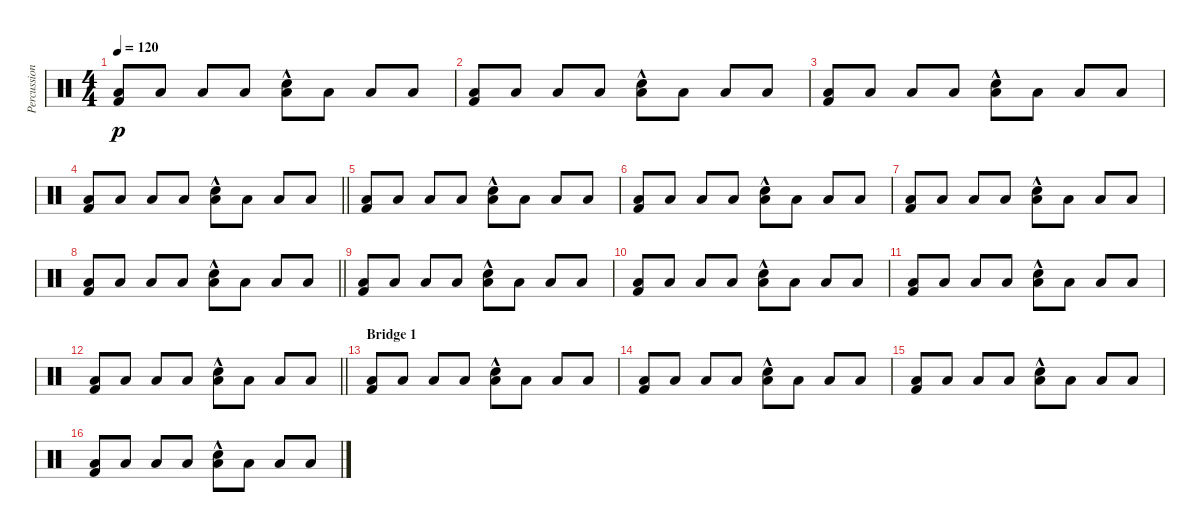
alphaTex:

\track ("Percussion" "Percussion") {instrument percussion}
\staff {score}
\articulation defaults
\ts (4 4)
\tempo 120
\clef neutral
\ks c
("Kick (hit) 2" "Low Floor Tom (hit)").8{dy p} "Low Floor Tom (hit)".8 "Low Floor Tom (hit)".8 "Low Floor Tom (hit)".8 ("Snare (hit) 2"{hac} "Low Floor Tom (hit)").8 "Low Floor Tom (hit)".8 "Low Floor Tom (hit)".8 "Low Floor Tom (hit)".8 |
("Kick (hit) 2" "Low Floor Tom (hit)").8 "Low Floor Tom (hit)".8 "Low Floor Tom (hit)".8 "Low Floor Tom (hit)".8 ("Snare (hit) 2"{hac} "Low Floor Tom (hit)").8 "Low Floor Tom (hit)".8 "Low Floor Tom (hit)".8 "Low Floor Tom (hit)".8 |
("Kick (hit) 2" "Low Floor Tom (hit)").8 "Low Floor Tom (hit)".8 "Low Floor Tom (hit)".8 "Low Floor Tom (hit)".8 ("Snare (hit) 2"{hac} "Low Floor Tom (hit)").8 "Low Floor Tom (hit)".8 "Low Floor Tom (hit)".8 "Low Floor Tom (hit)".8 |
\barLineRight lightlight
("Kick (hit) 2" "Low Floor Tom (hit)").8 "Low Floor Tom (hit)".8 "Low Floor Tom (hit)".8 "Low Floor Tom (hit)".8 ("Snare (hit) 2"{hac} "Low Floor Tom (hit)").8 "Low Floor Tom (hit)".8 "Low Floor Tom (hit)".8 "Low Floor Tom (hit)".8 |
("Kick (hit) 2" "Low Floor Tom (hit)").8 "Low Floor Tom (hit)".8 "Low Floor Tom (hit)".8 "Low Floor Tom (hit)".8 ("Snare (hit) 2"{hac} "Low Floor Tom (hit)").8 "Low Floor Tom (hit)".8 "Low Floor Tom (hit)".8 "Low Floor Tom (hit)".8 |
("Kick (hit) 2" "Low Floor Tom (hit)").8 "Low Floor Tom (hit)".8 "Low Floor Tom (hit)".8 "Low Floor Tom (hit)".8 ("Snare (hit) 2"{hac} "Low Floor Tom (hit)").8 "Low Floor Tom (hit)".8 "Low Floor Tom (hit)".8 "Low Floor Tom (hit)".8 |
("Kick (hit) 2" "Low Floor Tom (hit)").8 "Low Floor Tom (hit)".8 "Low Floor Tom (hit)".8 "Low Floor Tom (hit)".8 ("Snare (hit) 2"{hac} "Low Floor Tom (hit)").8 "Low Floor Tom (hit)".8 "Low Floor Tom (hit)".8 "Low Floor Tom (hit)".8 |
\barLineRight lightlight
("Kick (hit) 2" "Low Floor Tom (hit)").8 "Low Floor Tom (hit)".8 "Low Floor Tom (hit)".8 "Low Floor Tom (hit)".8 ("Snare (hit) 2"{hac} "Low Floor Tom (hit)").8 "Low Floor Tom (hit)".8 "Low Floor Tom (hit)".8 "Low Floor Tom (hit)".8 |
("Kick (hit) 2" "Low Floor Tom (hit)").8 "Low Floor Tom (hit)".8 "Low Floor Tom (hit)".8 "Low Floor Tom (hit)".8 ("Snare (hit) 2"{hac} "Low Floor Tom (hit)").8 "Low Floor Tom (hit)".8 "Low Floor Tom (hit)".8 "Low Floor Tom (hit)".8 |
("Kick (hit) 2" "Low Floor Tom (hit)").8 "Low Floor Tom (hit)".8 "Low Floor Tom (hit)".8 "Low Floor Tom (hit)".8 ("Snare (hit) 2"{hac} "Low Floor Tom (hit)").8 "Low Floor Tom (hit)".8 "Low Floor Tom (hit)".8 "Low Floor Tom (hit)".8 |
("Kick (hit) 2" "Low Floor Tom (hit)").8 "Low Floor Tom (hit)".8 "Low Floor Tom (hit)".8 "Low Floor Tom (hit)".8 ("Snare (hit) 2"{hac} "Low Floor Tom (hit)").8 "Low Floor Tom (hit)".8 "Low Floor Tom (hit)".8 "Low Floor Tom (hit)".8 |
\barLineRight lightlight
("Kick (hit) 2" "Low Floor Tom (hit)").8 "Low Floor Tom (hit)".8 "Low Floor Tom (hit)".8 "Low Floor Tom (hit)".8 ("Snare (hit) 2"{hac} "Low Floor Tom (hit)").8 "Low Floor Tom (hit)".8 "Low Floor Tom (hit)".8 "Low Floor Tom (hit)".8 |
\section ("" "Bridge 1")
("Kick (hit) 2" "Low Floor Tom (hit)").8 "Low Floor Tom (hit)".8 "Low Floor Tom (hit)".8 "Low Floor Tom (hit)".8 ("Snare (hit) 2"{hac} "Low Floor Tom (hit)").8 "Low Floor Tom (hit)".8 "Low Floor Tom (hit)".8 "Low Floor Tom (hit)".8 |
("Kick (hit) 2" "Low Floor Tom (hit)").8 "Low Floor Tom (hit)".8 "Low Floor Tom (hit)".8 "Low Floor Tom (hit)".8 ("Snare (hit) 2"{hac} "Low Floor Tom (hit)").8 "Low Floor Tom (hit)".8 "Low Floor Tom (hit)".8 "Low Floor Tom (hit)".8 |
("Kick (hit) 2" "Low Floor Tom (hit)").8 "Low Floor Tom (hit)".8 "Low Floor Tom (hit)".8 "Low Floor Tom (hit)".8 ("Snare (hit) 2"{hac} "Low Floor Tom (hit)").8 "Low Floor Tom (hit)".8 "Low Floor Tom (hit)".8 "Low Floor Tom (hit)".8 |
("Kick (hit) 2" "Low Floor Tom (hit)").8 "Low Floor Tom (hit)".8 "Low Floor Tom (hit)".8 "Low Floor Tom (hit)".8 ("Snare (hit) 2"{hac} "Low Floor Tom (hit)").8 "Low Floor Tom (hit)".8 "Low Floor Tom (hit)".8 "Low Floor Tom (hit)".8
